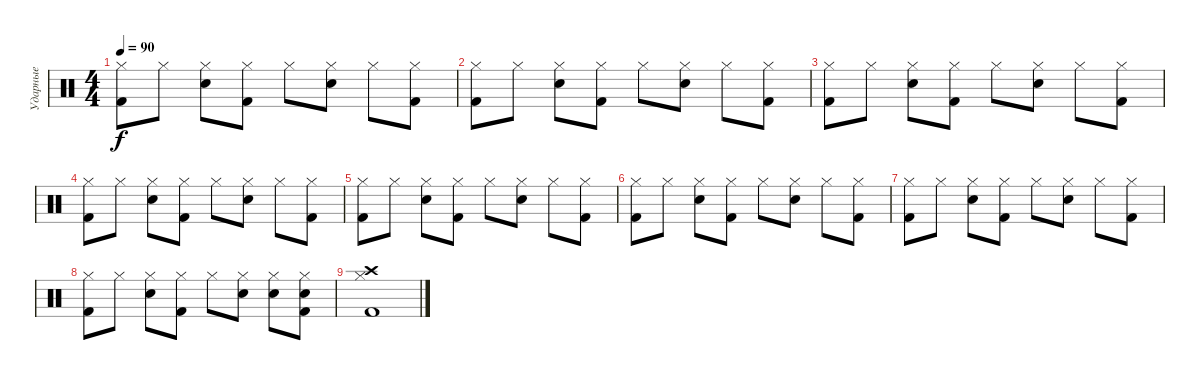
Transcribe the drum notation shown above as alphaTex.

\track ("Ударные" "Ударные") {instrument percussion}
\staff {score}
\articulation defaults
\ts (4 4)
\tempo 90
\clef neutral
\ks c
("Hi-Hat (closed)" "Kick (hit) 2").8{dy f} "Hi-Hat (closed)".8 ("Hi-Hat (closed)" "Electric Snare (hit)").8 ("Hi-Hat (closed)" "Kick (hit) 2").8 "Hi-Hat (closed)".8 ("Hi-Hat (closed)" "Electric Snare (hit)").8 "Hi-Hat (closed)".8 ("Hi-Hat (closed)" "Kick (hit) 2").8 |
("Hi-Hat (closed)" "Kick (hit) 2").8 "Hi-Hat (closed)".8 ("Hi-Hat (closed)" "Electric Snare (hit)").8 ("Hi-Hat (closed)" "Kick (hit) 2").8 "Hi-Hat (closed)".8 ("Hi-Hat (closed)" "Electric Snare (hit)").8 "Hi-Hat (closed)".8 ("Hi-Hat (closed)" "Kick (hit) 2").8 |
("Hi-Hat (closed)" "Kick (hit) 2").8 "Hi-Hat (closed)".8 ("Hi-Hat (closed)" "Electric Snare (hit)").8 ("Hi-Hat (closed)" "Kick (hit) 2").8 "Hi-Hat (closed)".8 ("Hi-Hat (closed)" "Electric Snare (hit)").8 "Hi-Hat (closed)".8 ("Hi-Hat (closed)" "Kick (hit) 2").8 |
("Hi-Hat (closed)" "Kick (hit) 2").8 "Hi-Hat (closed)".8 ("Hi-Hat (closed)" "Electric Snare (hit)").8 ("Hi-Hat (closed)" "Kick (hit) 2").8 "Hi-Hat (closed)".8 ("Hi-Hat (closed)" "Electric Snare (hit)").8 "Hi-Hat (closed)".8 ("Hi-Hat (closed)" "Kick (hit) 2").8 |
("Hi-Hat (closed)" "Kick (hit) 2").8 "Hi-Hat (closed)".8 ("Hi-Hat (closed)" "Electric Snare (hit)").8 ("Hi-Hat (closed)" "Kick (hit) 2").8 "Hi-Hat (closed)".8 ("Hi-Hat (closed)" "Electric Snare (hit)").8 "Hi-Hat (closed)".8 ("Hi-Hat (closed)" "Kick (hit) 2").8 |
("Hi-Hat (closed)" "Kick (hit) 2").8 "Hi-Hat (closed)".8 ("Hi-Hat (closed)" "Electric Snare (hit)").8 ("Hi-Hat (closed)" "Kick (hit) 2").8 "Hi-Hat (closed)".8 ("Hi-Hat (closed)" "Electric Snare (hit)").8 "Hi-Hat (closed)".8 ("Hi-Hat (closed)" "Kick (hit) 2").8 |
("Hi-Hat (closed)" "Kick (hit) 2").8 "Hi-Hat (closed)".8 ("Hi-Hat (closed)" "Electric Snare (hit)").8 ("Hi-Hat (closed)" "Kick (hit) 2").8 "Hi-Hat (closed)".8 ("Hi-Hat (closed)" "Electric Snare (hit)").8 "Hi-Hat (closed)".8 ("Hi-Hat (closed)" "Kick (hit) 2").8 |
("Hi-Hat (closed)" "Kick (hit) 2").8 "Hi-Hat (closed)".8 ("Hi-Hat (closed)" "Electric Snare (hit)").8 ("Hi-Hat (closed)" "Kick (hit) 2").8 "Hi-Hat (closed)".8 ("Hi-Hat (closed)" "Electric Snare (hit)").8 ("Hi-Hat (closed)" "Electric Snare (hit)").8 ("Hi-Hat (closed)" "Electric Snare (hit)" "Kick (hit) 2").8 |
("Crash high (hit)" "Hi-Hat (closed)" "Kick (hit) 2").1
